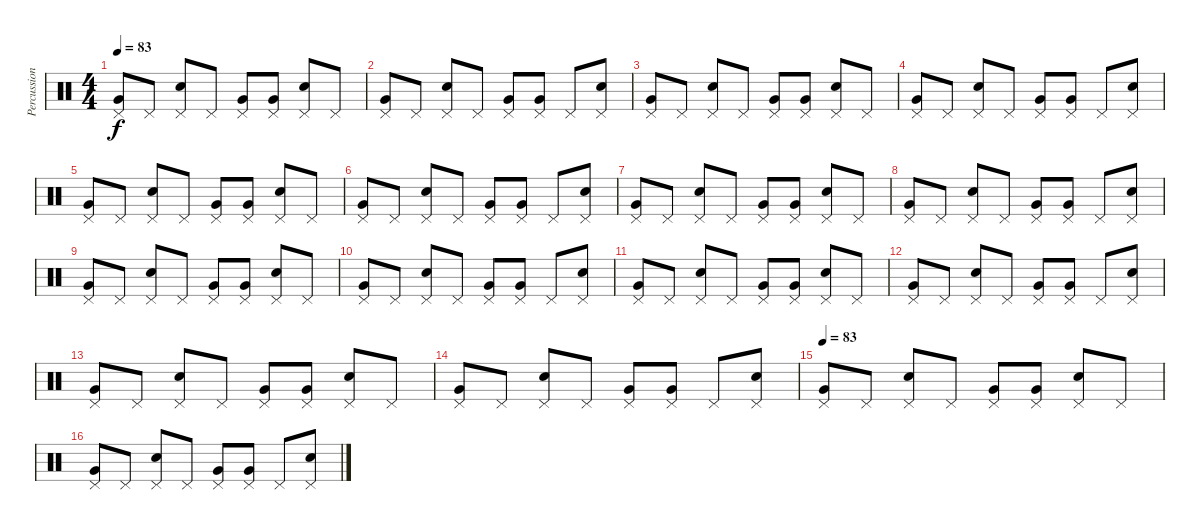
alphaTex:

\track ("Percussion" "Percussion") {instrument percussion}
\staff {score}
\articulation defaults
\ts (4 4)
\tempo 83
\clef neutral
\ks c
("Pedal Hi-Hat (hit)" "Very Low Tom (hit)").8{dy f} "Pedal Hi-Hat (hit)".8 ("Pedal Hi-Hat (hit)" "Snare (hit) 2").8 "Pedal Hi-Hat (hit)".8 ("Pedal Hi-Hat (hit)" "Very Low Tom (hit)").8 ("Pedal Hi-Hat (hit)" "Very Low Tom (hit)").8 ("Pedal Hi-Hat (hit)" "Snare (hit) 2").8 "Pedal Hi-Hat (hit)".8 |
("Pedal Hi-Hat (hit)" "Very Low Tom (hit)").8 "Pedal Hi-Hat (hit)".8 ("Pedal Hi-Hat (hit)" "Snare (hit) 2").8 "Pedal Hi-Hat (hit)".8 ("Pedal Hi-Hat (hit)" "Very Low Tom (hit)").8 ("Pedal Hi-Hat (hit)" "Very Low Tom (hit)").8 "Pedal Hi-Hat (hit)".8 ("Pedal Hi-Hat (hit)" "Snare (hit) 2").8 |
("Pedal Hi-Hat (hit)" "Very Low Tom (hit)").8 "Pedal Hi-Hat (hit)".8 ("Pedal Hi-Hat (hit)" "Snare (hit) 2").8 "Pedal Hi-Hat (hit)".8 ("Pedal Hi-Hat (hit)" "Very Low Tom (hit)").8 ("Pedal Hi-Hat (hit)" "Very Low Tom (hit)").8 ("Pedal Hi-Hat (hit)" "Snare (hit) 2").8 "Pedal Hi-Hat (hit)".8 |
("Pedal Hi-Hat (hit)" "Very Low Tom (hit)").8 "Pedal Hi-Hat (hit)".8 ("Pedal Hi-Hat (hit)" "Snare (hit) 2").8 "Pedal Hi-Hat (hit)".8 ("Pedal Hi-Hat (hit)" "Very Low Tom (hit)").8 ("Pedal Hi-Hat (hit)" "Very Low Tom (hit)").8 "Pedal Hi-Hat (hit)".8 ("Pedal Hi-Hat (hit)" "Snare (hit) 2").8 |
("Pedal Hi-Hat (hit)" "Very Low Tom (hit)").8 "Pedal Hi-Hat (hit)".8 ("Pedal Hi-Hat (hit)" "Snare (hit) 2").8 "Pedal Hi-Hat (hit)".8 ("Pedal Hi-Hat (hit)" "Very Low Tom (hit)").8 ("Pedal Hi-Hat (hit)" "Very Low Tom (hit)").8 ("Pedal Hi-Hat (hit)" "Snare (hit) 2").8 "Pedal Hi-Hat (hit)".8 |
("Pedal Hi-Hat (hit)" "Very Low Tom (hit)").8 "Pedal Hi-Hat (hit)".8 ("Pedal Hi-Hat (hit)" "Snare (hit) 2").8 "Pedal Hi-Hat (hit)".8 ("Pedal Hi-Hat (hit)" "Very Low Tom (hit)").8 ("Pedal Hi-Hat (hit)" "Very Low Tom (hit)").8 "Pedal Hi-Hat (hit)".8 ("Pedal Hi-Hat (hit)" "Snare (hit) 2").8 |
("Pedal Hi-Hat (hit)" "Very Low Tom (hit)").8 "Pedal Hi-Hat (hit)".8 ("Pedal Hi-Hat (hit)" "Snare (hit) 2").8 "Pedal Hi-Hat (hit)".8 ("Pedal Hi-Hat (hit)" "Very Low Tom (hit)").8 ("Pedal Hi-Hat (hit)" "Very Low Tom (hit)").8 ("Pedal Hi-Hat (hit)" "Snare (hit) 2").8 "Pedal Hi-Hat (hit)".8 |
("Pedal Hi-Hat (hit)" "Very Low Tom (hit)").8 "Pedal Hi-Hat (hit)".8 ("Pedal Hi-Hat (hit)" "Snare (hit) 2").8 "Pedal Hi-Hat (hit)".8 ("Pedal Hi-Hat (hit)" "Very Low Tom (hit)").8 ("Pedal Hi-Hat (hit)" "Very Low Tom (hit)").8 "Pedal Hi-Hat (hit)".8 ("Pedal Hi-Hat (hit)" "Snare (hit) 2").8 |
("Pedal Hi-Hat (hit)" "Very Low Tom (hit)").8 "Pedal Hi-Hat (hit)".8 ("Pedal Hi-Hat (hit)" "Snare (hit) 2").8 "Pedal Hi-Hat (hit)".8 ("Pedal Hi-Hat (hit)" "Very Low Tom (hit)").8 ("Pedal Hi-Hat (hit)" "Very Low Tom (hit)").8 ("Pedal Hi-Hat (hit)" "Snare (hit) 2").8 "Pedal Hi-Hat (hit)".8 |
("Pedal Hi-Hat (hit)" "Very Low Tom (hit)").8 "Pedal Hi-Hat (hit)".8 ("Pedal Hi-Hat (hit)" "Snare (hit) 2").8 "Pedal Hi-Hat (hit)".8 ("Pedal Hi-Hat (hit)" "Very Low Tom (hit)").8 ("Pedal Hi-Hat (hit)" "Very Low Tom (hit)").8 "Pedal Hi-Hat (hit)".8 ("Pedal Hi-Hat (hit)" "Snare (hit) 2").8 |
("Pedal Hi-Hat (hit)" "Very Low Tom (hit)").8 "Pedal Hi-Hat (hit)".8 ("Pedal Hi-Hat (hit)" "Snare (hit) 2").8 "Pedal Hi-Hat (hit)".8 ("Pedal Hi-Hat (hit)" "Very Low Tom (hit)").8 ("Pedal Hi-Hat (hit)" "Very Low Tom (hit)").8 ("Pedal Hi-Hat (hit)" "Snare (hit) 2").8 "Pedal Hi-Hat (hit)".8 |
("Pedal Hi-Hat (hit)" "Very Low Tom (hit)").8 "Pedal Hi-Hat (hit)".8 ("Pedal Hi-Hat (hit)" "Snare (hit) 2").8 "Pedal Hi-Hat (hit)".8 ("Pedal Hi-Hat (hit)" "Very Low Tom (hit)").8 ("Pedal Hi-Hat (hit)" "Very Low Tom (hit)").8 "Pedal Hi-Hat (hit)".8 ("Pedal Hi-Hat (hit)" "Snare (hit) 2").8 |
("Pedal Hi-Hat (hit)" "Very Low Tom (hit)").8 "Pedal Hi-Hat (hit)".8 ("Pedal Hi-Hat (hit)" "Snare (hit) 2").8 "Pedal Hi-Hat (hit)".8 ("Pedal Hi-Hat (hit)" "Very Low Tom (hit)").8 ("Pedal Hi-Hat (hit)" "Very Low Tom (hit)").8 ("Pedal Hi-Hat (hit)" "Snare (hit) 2").8 "Pedal Hi-Hat (hit)".8 |
("Pedal Hi-Hat (hit)" "Very Low Tom (hit)").8 "Pedal Hi-Hat (hit)".8 ("Pedal Hi-Hat (hit)" "Snare (hit) 2").8 "Pedal Hi-Hat (hit)".8 ("Pedal Hi-Hat (hit)" "Very Low Tom (hit)").8 ("Pedal Hi-Hat (hit)" "Very Low Tom (hit)").8 "Pedal Hi-Hat (hit)".8 ("Pedal Hi-Hat (hit)" "Snare (hit) 2").8 |
\tempo 83
("Pedal Hi-Hat (hit)" "Very Low Tom (hit)").8 "Pedal Hi-Hat (hit)".8 ("Pedal Hi-Hat (hit)" "Snare (hit) 2").8 "Pedal Hi-Hat (hit)".8 ("Pedal Hi-Hat (hit)" "Very Low Tom (hit)").8 ("Pedal Hi-Hat (hit)" "Very Low Tom (hit)").8 ("Pedal Hi-Hat (hit)" "Snare (hit) 2").8 "Pedal Hi-Hat (hit)".8 |
("Pedal Hi-Hat (hit)" "Very Low Tom (hit)").8 "Pedal Hi-Hat (hit)".8 ("Pedal Hi-Hat (hit)" "Snare (hit) 2").8 "Pedal Hi-Hat (hit)".8 ("Pedal Hi-Hat (hit)" "Very Low Tom (hit)").8 ("Pedal Hi-Hat (hit)" "Very Low Tom (hit)").8 "Pedal Hi-Hat (hit)".8 ("Pedal Hi-Hat (hit)" "Snare (hit) 2").8
